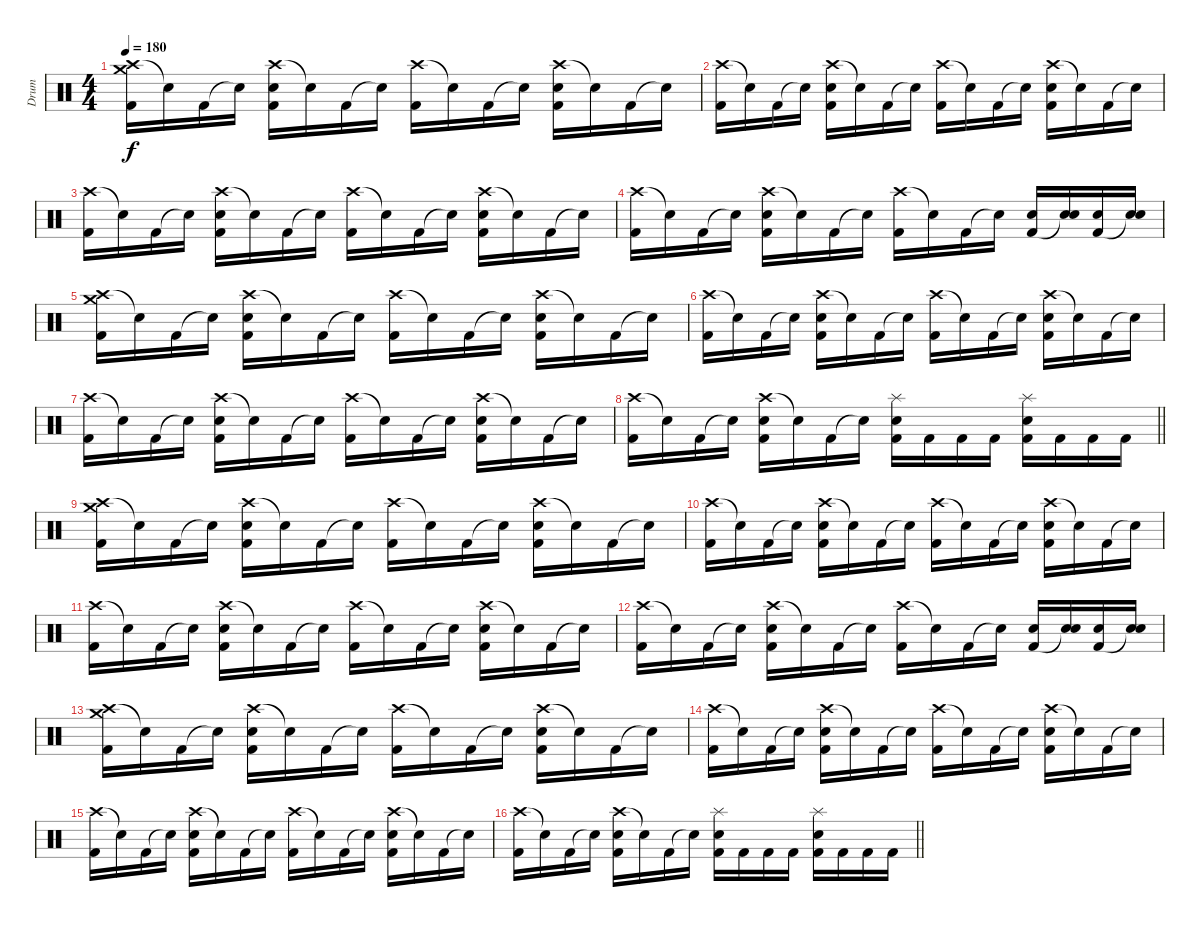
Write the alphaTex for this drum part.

\track ("Drum" "Drum") {instrument percussion}
\staff {score}
\articulation defaults
\ts (4 4)
\tempo 180
\clef neutral
\ks c
("Crash high (hit)" "Crash medium (hit)" "Kick (hit) 2").16{dy f} "Snare (hit)"{t}.16 "Kick (hit) 2".16 "Snare (hit)"{t}.16 ("Crash high (hit)" "Snare (hit) 2" "Kick (hit) 2").16 "Snare (hit)"{t}.16 "Kick (hit) 2".16 "Snare (hit)"{t}.16 ("Crash high (hit)" "Kick (hit) 2").16 "Snare (hit)"{t}.16 "Kick (hit) 2".16 "Snare (hit)"{t}.16 ("Crash high (hit)" "Snare (hit) 2" "Kick (hit) 2").16 "Snare (hit)"{t}.16 "Kick (hit) 2".16 "Snare (hit)"{t}.16 |
("Crash high (hit)" "Kick (hit) 2").16 "Snare (hit)"{t}.16 "Kick (hit) 2".16 "Snare (hit)"{t}.16 ("Crash high (hit)" "Snare (hit) 2" "Kick (hit) 2").16 "Snare (hit)"{t}.16 "Kick (hit) 2".16 "Snare (hit)"{t}.16 ("Crash high (hit)" "Kick (hit) 2").16 "Snare (hit)"{t}.16 "Kick (hit) 2".16 "Snare (hit)"{t}.16 ("Crash high (hit)" "Snare (hit) 2" "Kick (hit) 2").16 "Snare (hit)"{t}.16 "Kick (hit) 2".16 "Snare (hit)"{t}.16 |
("Crash high (hit)" "Kick (hit) 2").16 "Snare (hit)"{t}.16 "Kick (hit) 2".16 "Snare (hit)"{t}.16 ("Crash high (hit)" "Snare (hit) 2" "Kick (hit) 2").16 "Snare (hit)"{t}.16 "Kick (hit) 2".16 "Snare (hit)"{t}.16 ("Crash high (hit)" "Kick (hit) 2").16 "Snare (hit)"{t}.16 "Kick (hit) 2".16 "Snare (hit)"{t}.16 ("Crash high (hit)" "Snare (hit) 2" "Kick (hit) 2").16 "Snare (hit)"{t}.16 "Kick (hit) 2".16 "Snare (hit)"{t}.16 |
("Crash high (hit)" "Kick (hit) 2").16 "Snare (hit)"{t}.16 "Kick (hit) 2".16 "Snare (hit)"{t}.16 ("Crash high (hit)" "Snare (hit) 2" "Kick (hit) 2").16 "Snare (hit)"{t}.16 "Kick (hit) 2".16 "Snare (hit)"{t}.16 ("Crash high (hit)" "Kick (hit) 2").16 "Snare (hit)"{t}.16 "Kick (hit) 2".16 "Snare (hit)"{t}.16 ("Snare (hit) 2" "Kick (hit) 2").16 ("Snare (hit) 2" "Snare (hit)"{t}).16 ("Snare (hit) 2" "Kick (hit) 2").16 ("Snare (hit) 2" "Snare (hit)"{t}).16 |
("Crash high (hit)" "Crash medium (hit)" "Kick (hit) 2").16 "Snare (hit)"{t}.16 "Kick (hit) 2".16 "Snare (hit)"{t}.16 ("Crash high (hit)" "Snare (hit) 2" "Kick (hit) 2").16 "Snare (hit)"{t}.16 "Kick (hit) 2".16 "Snare (hit)"{t}.16 ("Crash high (hit)" "Kick (hit) 2").16 "Snare (hit)"{t}.16 "Kick (hit) 2".16 "Snare (hit)"{t}.16 ("Crash high (hit)" "Snare (hit) 2" "Kick (hit) 2").16 "Snare (hit)"{t}.16 "Kick (hit) 2".16 "Snare (hit)"{t}.16 |
("Crash high (hit)" "Kick (hit) 2").16 "Snare (hit)"{t}.16 "Kick (hit) 2".16 "Snare (hit)"{t}.16 ("Crash high (hit)" "Snare (hit) 2" "Kick (hit) 2").16 "Snare (hit)"{t}.16 "Kick (hit) 2".16 "Snare (hit)"{t}.16 ("Crash high (hit)" "Kick (hit) 2").16 "Snare (hit)"{t}.16 "Kick (hit) 2".16 "Snare (hit)"{t}.16 ("Crash high (hit)" "Snare (hit) 2" "Kick (hit) 2").16 "Snare (hit)"{t}.16 "Kick (hit) 2".16 "Snare (hit)"{t}.16 |
("Crash high (hit)" "Kick (hit) 2").16 "Snare (hit)"{t}.16 "Kick (hit) 2".16 "Snare (hit)"{t}.16 ("Crash high (hit)" "Snare (hit) 2" "Kick (hit) 2").16 "Snare (hit)"{t}.16 "Kick (hit) 2".16 "Snare (hit)"{t}.16 ("Crash high (hit)" "Kick (hit) 2").16 "Snare (hit)"{t}.16 "Kick (hit) 2".16 "Snare (hit)"{t}.16 ("Crash high (hit)" "Snare (hit) 2" "Kick (hit) 2").16 "Snare (hit)"{t}.16 "Kick (hit) 2".16 "Snare (hit)"{t}.16 |
\barLineRight lightlight
("Crash high (hit)" "Kick (hit) 2").16 "Snare (hit)"{t}.16 "Kick (hit) 2".16 "Snare (hit)"{t}.16 ("Crash high (hit)" "Snare (hit) 2" "Kick (hit) 2").16 "Snare (hit)"{t}.16 "Kick (hit) 2".16 "Snare (hit)"{t}.16 ("Splash (hit)" "Snare (hit) 2" "Kick (hit) 2").16 "Kick (hit) 2".16 "Kick (hit) 2".16 "Kick (hit) 2".16 ("Splash (hit)" "Snare (hit) 2" "Kick (hit) 2").16 "Kick (hit) 2".16 "Kick (hit) 2".16 "Kick (hit) 2".16 |
\section ("" "")
("Crash high (hit)" "Crash medium (hit)" "Kick (hit) 2").16 "Snare (hit)"{t}.16 "Kick (hit) 2".16 "Snare (hit)"{t}.16 ("Crash high (hit)" "Snare (hit) 2" "Kick (hit) 2").16 "Snare (hit)"{t}.16 "Kick (hit) 2".16 "Snare (hit)"{t}.16 ("Crash high (hit)" "Kick (hit) 2").16 "Snare (hit)"{t}.16 "Kick (hit) 2".16 "Snare (hit)"{t}.16 ("Crash high (hit)" "Snare (hit) 2" "Kick (hit) 2").16 "Snare (hit)"{t}.16 "Kick (hit) 2".16 "Snare (hit)"{t}.16 |
("Crash high (hit)" "Kick (hit) 2").16 "Snare (hit)"{t}.16 "Kick (hit) 2".16 "Snare (hit)"{t}.16 ("Crash high (hit)" "Snare (hit) 2" "Kick (hit) 2").16 "Snare (hit)"{t}.16 "Kick (hit) 2".16 "Snare (hit)"{t}.16 ("Crash high (hit)" "Kick (hit) 2").16 "Snare (hit)"{t}.16 "Kick (hit) 2".16 "Snare (hit)"{t}.16 ("Crash high (hit)" "Snare (hit) 2" "Kick (hit) 2").16 "Snare (hit)"{t}.16 "Kick (hit) 2".16 "Snare (hit)"{t}.16 |
("Crash high (hit)" "Kick (hit) 2").16 "Snare (hit)"{t}.16 "Kick (hit) 2".16 "Snare (hit)"{t}.16 ("Crash high (hit)" "Snare (hit) 2" "Kick (hit) 2").16 "Snare (hit)"{t}.16 "Kick (hit) 2".16 "Snare (hit)"{t}.16 ("Crash high (hit)" "Kick (hit) 2").16 "Snare (hit)"{t}.16 "Kick (hit) 2".16 "Snare (hit)"{t}.16 ("Crash high (hit)" "Snare (hit) 2" "Kick (hit) 2").16 "Snare (hit)"{t}.16 "Kick (hit) 2".16 "Snare (hit)"{t}.16 |
("Crash high (hit)" "Kick (hit) 2").16 "Snare (hit)"{t}.16 "Kick (hit) 2".16 "Snare (hit)"{t}.16 ("Crash high (hit)" "Snare (hit) 2" "Kick (hit) 2").16 "Snare (hit)"{t}.16 "Kick (hit) 2".16 "Snare (hit)"{t}.16 ("Crash high (hit)" "Kick (hit) 2").16 "Snare (hit)"{t}.16 "Kick (hit) 2".16 "Snare (hit)"{t}.16 ("Snare (hit) 2" "Kick (hit) 2").16 ("Snare (hit) 2" "Snare (hit)"{t}).16 ("Snare (hit) 2" "Kick (hit) 2").16 ("Snare (hit) 2" "Snare (hit)"{t}).16 |
("Crash high (hit)" "Crash medium (hit)" "Kick (hit) 2").16 "Snare (hit)"{t}.16 "Kick (hit) 2".16 "Snare (hit)"{t}.16 ("Crash high (hit)" "Snare (hit) 2" "Kick (hit) 2").16 "Snare (hit)"{t}.16 "Kick (hit) 2".16 "Snare (hit)"{t}.16 ("Crash high (hit)" "Kick (hit) 2").16 "Snare (hit)"{t}.16 "Kick (hit) 2".16 "Snare (hit)"{t}.16 ("Crash high (hit)" "Snare (hit) 2" "Kick (hit) 2").16 "Snare (hit)"{t}.16 "Kick (hit) 2".16 "Snare (hit)"{t}.16 |
("Crash high (hit)" "Kick (hit) 2").16 "Snare (hit)"{t}.16 "Kick (hit) 2".16 "Snare (hit)"{t}.16 ("Crash high (hit)" "Snare (hit) 2" "Kick (hit) 2").16 "Snare (hit)"{t}.16 "Kick (hit) 2".16 "Snare (hit)"{t}.16 ("Crash high (hit)" "Kick (hit) 2").16 "Snare (hit)"{t}.16 "Kick (hit) 2".16 "Snare (hit)"{t}.16 ("Crash high (hit)" "Snare (hit) 2" "Kick (hit) 2").16 "Snare (hit)"{t}.16 "Kick (hit) 2".16 "Snare (hit)"{t}.16 |
("Crash high (hit)" "Kick (hit) 2").16 "Snare (hit)"{t}.16 "Kick (hit) 2".16 "Snare (hit)"{t}.16 ("Crash high (hit)" "Snare (hit) 2" "Kick (hit) 2").16 "Snare (hit)"{t}.16 "Kick (hit) 2".16 "Snare (hit)"{t}.16 ("Crash high (hit)" "Kick (hit) 2").16 "Snare (hit)"{t}.16 "Kick (hit) 2".16 "Snare (hit)"{t}.16 ("Crash high (hit)" "Snare (hit) 2" "Kick (hit) 2").16 "Snare (hit)"{t}.16 "Kick (hit) 2".16 "Snare (hit)"{t}.16 |
\barLineRight lightlight
("Crash high (hit)" "Kick (hit) 2").16 "Snare (hit)"{t}.16 "Kick (hit) 2".16 "Snare (hit)"{t}.16 ("Crash high (hit)" "Snare (hit) 2" "Kick (hit) 2").16 "Snare (hit)"{t}.16 "Kick (hit) 2".16 "Snare (hit)"{t}.16 ("Splash (hit)" "Snare (hit) 2" "Kick (hit) 2").16 "Kick (hit) 2".16 "Kick (hit) 2".16 "Kick (hit) 2".16 ("Splash (hit)" "Snare (hit) 2" "Kick (hit) 2").16 "Kick (hit) 2".16 "Kick (hit) 2".16 "Kick (hit) 2".16
